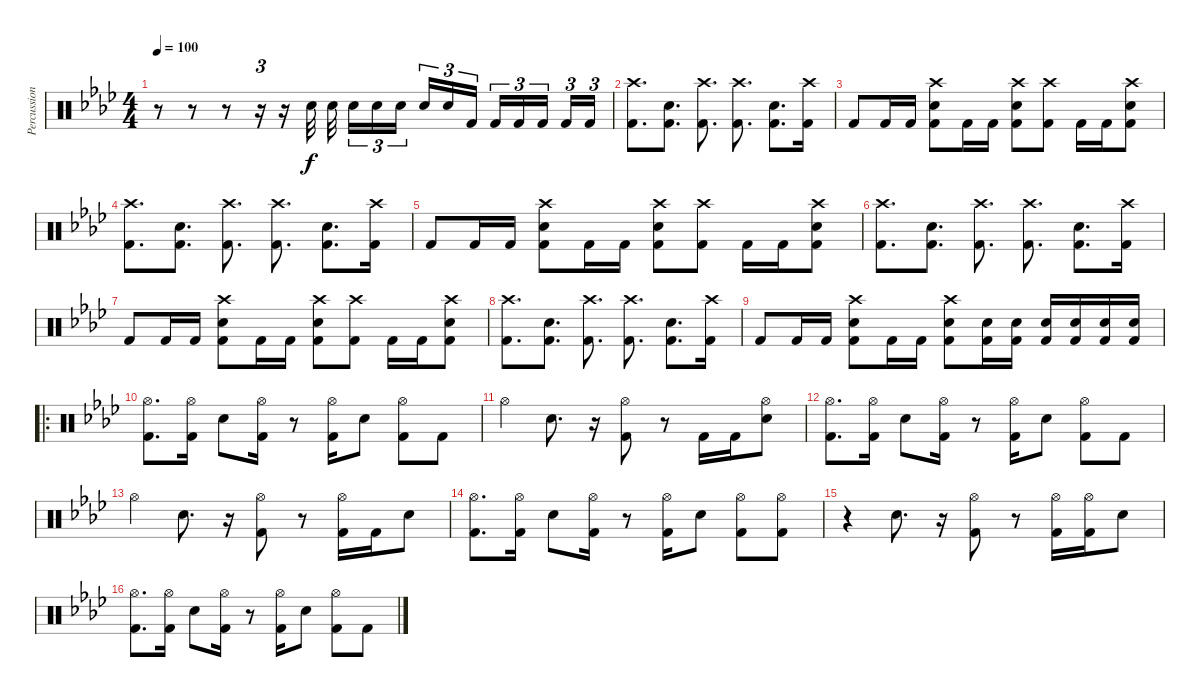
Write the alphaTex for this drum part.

\track ("Percussion" "Percussion") {instrument percussion}
\staff {score}
\articulation defaults
\ts (4 4)
\tempo 100
\clef neutral
\ks ab
r.8{dy f} r.8 r.8 r.16{tu (3 2)} r.16 "Electric Snare (hit)".32 "Electric Snare (hit)".32{beam splitsecondary} "Electric Snare (hit)".16{tu (3 2)} "Electric Snare (hit)".16{tu (3 2)} "Electric Snare (hit)".16{tu (3 2) beam splitsecondary} "Electric Snare (hit)".16{tu (3 2)} "Electric Snare (hit)".16{tu (3 2)} "Kick (hit) 2".16{tu (3 2) beam splitsecondary} "Kick (hit) 2".16{tu (3 2)} "Kick (hit) 2".16{tu (3 2)} "Kick (hit) 2".16{tu (3 2) beam splitsecondary} "Kick (hit) 2".16{tu (3 2)} "Kick (hit) 2".16{tu (3 2)} |
("Crash high (hit)" "Kick (hit) 2").8{d} ("Electric Snare (hit)" "Kick (hit) 2").8{d} ("Crash high (hit)" "Kick (hit) 2").8{d} ("Crash high (hit)" "Kick (hit) 2").8{d} ("Electric Snare (hit)" "Kick (hit) 2").8{d} ("Crash high (hit)" "Kick (hit) 2").16 |
"Kick (hit) 2".8 "Kick (hit) 2".16 "Kick (hit) 2".16 ("Crash high (hit)" "Electric Snare (hit)" "Kick (hit) 2").8 "Kick (hit) 2".16 "Kick (hit) 2".16 ("Crash high (hit)" "Electric Snare (hit)" "Kick (hit) 2").8 ("Crash high (hit)" "Kick (hit) 2").8 "Kick (hit) 2".16 "Kick (hit) 2".16 ("Crash high (hit)" "Electric Snare (hit)" "Kick (hit) 2").8 |
("Crash high (hit)" "Kick (hit) 2").8{d} ("Electric Snare (hit)" "Kick (hit) 2").8{d} ("Crash high (hit)" "Kick (hit) 2").8{d} ("Crash high (hit)" "Kick (hit) 2").8{d} ("Electric Snare (hit)" "Kick (hit) 2").8{d} ("Crash high (hit)" "Kick (hit) 2").16 |
"Kick (hit) 2".8 "Kick (hit) 2".16 "Kick (hit) 2".16 ("Crash high (hit)" "Electric Snare (hit)" "Kick (hit) 2").8 "Kick (hit) 2".16 "Kick (hit) 2".16 ("Crash high (hit)" "Electric Snare (hit)" "Kick (hit) 2").8 ("Crash high (hit)" "Kick (hit) 2").8 "Kick (hit) 2".16 "Kick (hit) 2".16 ("Crash high (hit)" "Electric Snare (hit)" "Kick (hit) 2").8 |
("Crash high (hit)" "Kick (hit) 2").8{d} ("Electric Snare (hit)" "Kick (hit) 2").8{d} ("Crash high (hit)" "Kick (hit) 2").8{d} ("Crash high (hit)" "Kick (hit) 2").8{d} ("Electric Snare (hit)" "Kick (hit) 2").8{d} ("Crash high (hit)" "Kick (hit) 2").16 |
"Kick (hit) 2".8 "Kick (hit) 2".16 "Kick (hit) 2".16 ("Crash high (hit)" "Electric Snare (hit)" "Kick (hit) 2").8 "Kick (hit) 2".16 "Kick (hit) 2".16 ("Crash high (hit)" "Electric Snare (hit)" "Kick (hit) 2").8 ("Crash high (hit)" "Kick (hit) 2").8 "Kick (hit) 2".16 "Kick (hit) 2".16 ("Crash high (hit)" "Electric Snare (hit)" "Kick (hit) 2").8 |
("Crash high (hit)" "Kick (hit) 2").8{d} ("Electric Snare (hit)" "Kick (hit) 2").8{d} ("Crash high (hit)" "Kick (hit) 2").8{d} ("Crash high (hit)" "Kick (hit) 2").8{d} ("Electric Snare (hit)" "Kick (hit) 2").8{d} ("Crash high (hit)" "Kick (hit) 2").16 |
"Kick (hit) 2".8 "Kick (hit) 2".16 "Kick (hit) 2".16 ("Crash high (hit)" "Electric Snare (hit)" "Kick (hit) 2").8 "Kick (hit) 2".16 "Kick (hit) 2".16 ("Crash high (hit)" "Electric Snare (hit)" "Kick (hit) 2").8 ("Electric Snare (hit)" "Kick (hit) 2").16 ("Electric Snare (hit)" "Kick (hit) 2").16 ("Electric Snare (hit)" "Kick (hit) 2").16 ("Electric Snare (hit)" "Kick (hit) 2").16 ("Electric Snare (hit)" "Kick (hit) 2").16 ("Electric Snare (hit)" "Kick (hit) 2").16 |
\ro
("Hi-Hat (open)" "Kick (hit) 2").8{d} ("Hi-Hat (open)" "Kick (hit) 2").16 "Electric Snare (hit)".8 ("Hi-Hat (open)" "Kick (hit) 2").16 r.8 ("Hi-Hat (open)" "Kick (hit) 2").16 "Electric Snare (hit)".8 ("Hi-Hat (open)" "Kick (hit) 2").8 "Kick (hit) 2".8 |
"Hi-Hat (open)".4 "Electric Snare (hit)".8{d} r.16 ("Hi-Hat (open)" "Kick (hit) 2").8 r.8 "Kick (hit) 2".16 "Kick (hit) 2".16 ("Hi-Hat (open)" "Electric Snare (hit)").8 |
("Hi-Hat (open)" "Kick (hit) 2").8{d} ("Hi-Hat (open)" "Kick (hit) 2").16 "Electric Snare (hit)".8 ("Hi-Hat (open)" "Kick (hit) 2").16 r.8 ("Hi-Hat (open)" "Kick (hit) 2").16 "Electric Snare (hit)".8 ("Hi-Hat (open)" "Kick (hit) 2").8 "Kick (hit) 2".8 |
"Hi-Hat (open)".4 "Electric Snare (hit)".8{d} r.16 ("Hi-Hat (open)" "Kick (hit) 2").8 r.8 ("Hi-Hat (open)" "Kick (hit) 2").16 "Kick (hit) 2".16 "Electric Snare (hit)".8 |
("Hi-Hat (open)" "Kick (hit) 2").8{d} ("Hi-Hat (open)" "Kick (hit) 2").16 "Electric Snare (hit)".8 ("Hi-Hat (open)" "Kick (hit) 2").16 r.8 ("Hi-Hat (open)" "Kick (hit) 2").16 "Electric Snare (hit)".8 ("Hi-Hat (open)" "Kick (hit) 2").8 ("Hi-Hat (open)" "Kick (hit) 2").8 |
r.4 "Electric Snare (hit)".8{d} r.16 ("Hi-Hat (open)" "Kick (hit) 2").8 r.8 ("Hi-Hat (open)" "Kick (hit) 2").16 ("Hi-Hat (open)" "Kick (hit) 2").16 "Electric Snare (hit)".8 |
("Hi-Hat (open)" "Kick (hit) 2").8{d} ("Hi-Hat (open)" "Kick (hit) 2").16 "Electric Snare (hit)".8 ("Hi-Hat (open)" "Kick (hit) 2").16 r.8 ("Hi-Hat (open)" "Kick (hit) 2").16 "Electric Snare (hit)".8 ("Hi-Hat (open)" "Kick (hit) 2").8 "Kick (hit) 2".8
